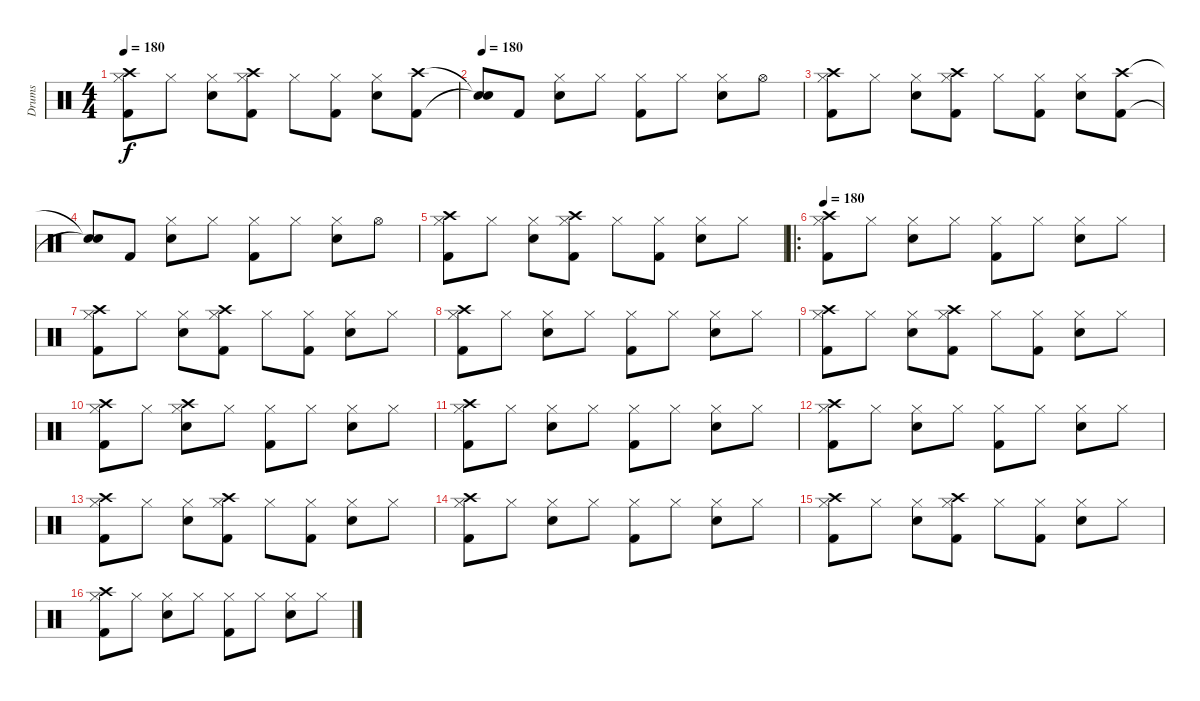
\track ("Drums" "Drums") {instrument percussion}
\staff {score}
\articulation defaults
\ts (4 4)
\tempo 180
\clef neutral
\ks c
("Kick (hit) 2" "Hi-Hat (closed)" "Crash high (hit)").8{dy f} "Hi-Hat (closed)".8 ("Snare (hit) 2" "Hi-Hat (closed)").8 ("Kick (hit) 2" "Hi-Hat (closed)" "Crash high (hit)").8 "Hi-Hat (closed)".8 ("Kick (hit) 2" "Hi-Hat (closed)").8 ("Snare (hit) 2" "Hi-Hat (closed)").8 ("Kick (hit) 2" "Crash high (hit)").8 |
\tempo 180
("Snare (hit)"{t} "Snare (hit)"{t}).8 "Kick (hit) 2".8 ("Snare (hit) 2" "Hi-Hat (closed)").8 "Hi-Hat (closed)".8 ("Kick (hit) 2" "Hi-Hat (closed)").8 "Hi-Hat (closed)".8 ("Snare (hit) 2" "Hi-Hat (closed)").8 "Hi-Hat (open)".8 |
("Kick (hit) 2" "Hi-Hat (closed)" "Crash high (hit)").8 "Hi-Hat (closed)".8 ("Snare (hit) 2" "Hi-Hat (closed)").8 ("Kick (hit) 2" "Hi-Hat (closed)" "Crash high (hit)").8 "Hi-Hat (closed)".8 ("Kick (hit) 2" "Hi-Hat (closed)").8 ("Snare (hit) 2" "Hi-Hat (closed)").8 ("Kick (hit) 2" "Crash high (hit)").8 |
("Snare (hit)"{t} "Snare (hit)"{t}).8 "Kick (hit) 2".8 ("Snare (hit) 2" "Hi-Hat (closed)").8 "Hi-Hat (closed)".8 ("Kick (hit) 2" "Hi-Hat (closed)").8 "Hi-Hat (closed)".8 ("Snare (hit) 2" "Hi-Hat (closed)").8 "Hi-Hat (open)".8 |
("Kick (hit) 2" "Hi-Hat (closed)" "Crash high (hit)").8 "Hi-Hat (closed)".8 ("Snare (hit) 2" "Hi-Hat (closed)").8 ("Kick (hit) 2" "Hi-Hat (closed)" "Crash high (hit)").8 "Hi-Hat (closed)".8 ("Kick (hit) 2" "Hi-Hat (closed)").8 ("Snare (hit) 2" "Hi-Hat (closed)").8 "Hi-Hat (closed)".8 |
\ro
\tempo 180
("Hi-Hat (closed)" "Kick (hit) 2" "Crash high (hit)").8 "Hi-Hat (closed)".8 ("Hi-Hat (closed)" "Snare (hit) 2").8 "Hi-Hat (closed)".8 ("Hi-Hat (closed)" "Kick (hit) 2").8 "Hi-Hat (closed)".8 ("Hi-Hat (closed)" "Snare (hit) 2").8 "Hi-Hat (closed)".8 |
("Hi-Hat (closed)" "Kick (hit) 2" "Crash high (hit)").8 "Hi-Hat (closed)".8 ("Hi-Hat (closed)" "Snare (hit) 2").8 ("Hi-Hat (closed)" "Kick (hit) 2" "Crash high (hit)").8 "Hi-Hat (closed)".8 ("Hi-Hat (closed)" "Kick (hit) 2").8 ("Hi-Hat (closed)" "Snare (hit) 2").8 "Hi-Hat (closed)".8 |
("Hi-Hat (closed)" "Kick (hit) 2" "Crash high (hit)").8 "Hi-Hat (closed)".8 ("Hi-Hat (closed)" "Snare (hit) 2").8 "Hi-Hat (closed)".8 ("Hi-Hat (closed)" "Kick (hit) 2").8 "Hi-Hat (closed)".8 ("Hi-Hat (closed)" "Snare (hit) 2").8 "Hi-Hat (closed)".8 |
("Hi-Hat (closed)" "Kick (hit) 2" "Crash high (hit)").8 "Hi-Hat (closed)".8 ("Hi-Hat (closed)" "Snare (hit) 2").8 ("Hi-Hat (closed)" "Kick (hit) 2" "Crash high (hit)").8 "Hi-Hat (closed)".8 ("Hi-Hat (closed)" "Kick (hit) 2").8 ("Hi-Hat (closed)" "Snare (hit) 2").8 "Hi-Hat (closed)".8 |
("Hi-Hat (closed)" "Kick (hit) 2" "Crash high (hit)").8 "Hi-Hat (closed)".8 ("Hi-Hat (closed)" "Snare (hit) 2" "Crash high (hit)").8 "Hi-Hat (closed)".8 ("Hi-Hat (closed)" "Kick (hit) 2").8 "Hi-Hat (closed)".8 ("Hi-Hat (closed)" "Snare (hit) 2").8 "Hi-Hat (closed)".8 |
("Hi-Hat (closed)" "Kick (hit) 2" "Crash high (hit)").8 "Hi-Hat (closed)".8 ("Hi-Hat (closed)" "Snare (hit) 2").8 "Hi-Hat (closed)".8 ("Hi-Hat (closed)" "Kick (hit) 2").8 "Hi-Hat (closed)".8 ("Hi-Hat (closed)" "Snare (hit) 2").8 "Hi-Hat (closed)".8 |
("Hi-Hat (closed)" "Kick (hit) 2" "Crash high (hit)").8 "Hi-Hat (closed)".8 ("Hi-Hat (closed)" "Snare (hit) 2").8 "Hi-Hat (closed)".8 ("Hi-Hat (closed)" "Kick (hit) 2").8 "Hi-Hat (closed)".8 ("Hi-Hat (closed)" "Snare (hit) 2").8 "Hi-Hat (closed)".8 |
("Hi-Hat (closed)" "Kick (hit) 2" "Crash high (hit)").8 "Hi-Hat (closed)".8 ("Hi-Hat (closed)" "Snare (hit) 2").8 ("Hi-Hat (closed)" "Kick (hit) 2" "Crash high (hit)").8 "Hi-Hat (closed)".8 ("Hi-Hat (closed)" "Kick (hit) 2").8 ("Hi-Hat (closed)" "Snare (hit) 2").8 "Hi-Hat (closed)".8 |
("Hi-Hat (closed)" "Kick (hit) 2" "Crash high (hit)").8 "Hi-Hat (closed)".8 ("Hi-Hat (closed)" "Snare (hit) 2").8 "Hi-Hat (closed)".8 ("Hi-Hat (closed)" "Kick (hit) 2").8 "Hi-Hat (closed)".8 ("Hi-Hat (closed)" "Snare (hit) 2").8 "Hi-Hat (closed)".8 |
("Hi-Hat (closed)" "Kick (hit) 2" "Crash high (hit)").8 "Hi-Hat (closed)".8 ("Hi-Hat (closed)" "Snare (hit) 2").8 ("Hi-Hat (closed)" "Kick (hit) 2" "Crash high (hit)").8 "Hi-Hat (closed)".8 ("Hi-Hat (closed)" "Kick (hit) 2").8 ("Hi-Hat (closed)" "Snare (hit) 2").8 "Hi-Hat (closed)".8 |
("Hi-Hat (closed)" "Kick (hit) 2" "Crash high (hit)").8 "Hi-Hat (closed)".8 ("Hi-Hat (closed)" "Snare (hit) 2").8 "Hi-Hat (closed)".8 ("Hi-Hat (closed)" "Kick (hit) 2").8 "Hi-Hat (closed)".8 ("Hi-Hat (closed)" "Snare (hit) 2").8 "Hi-Hat (closed)".8
